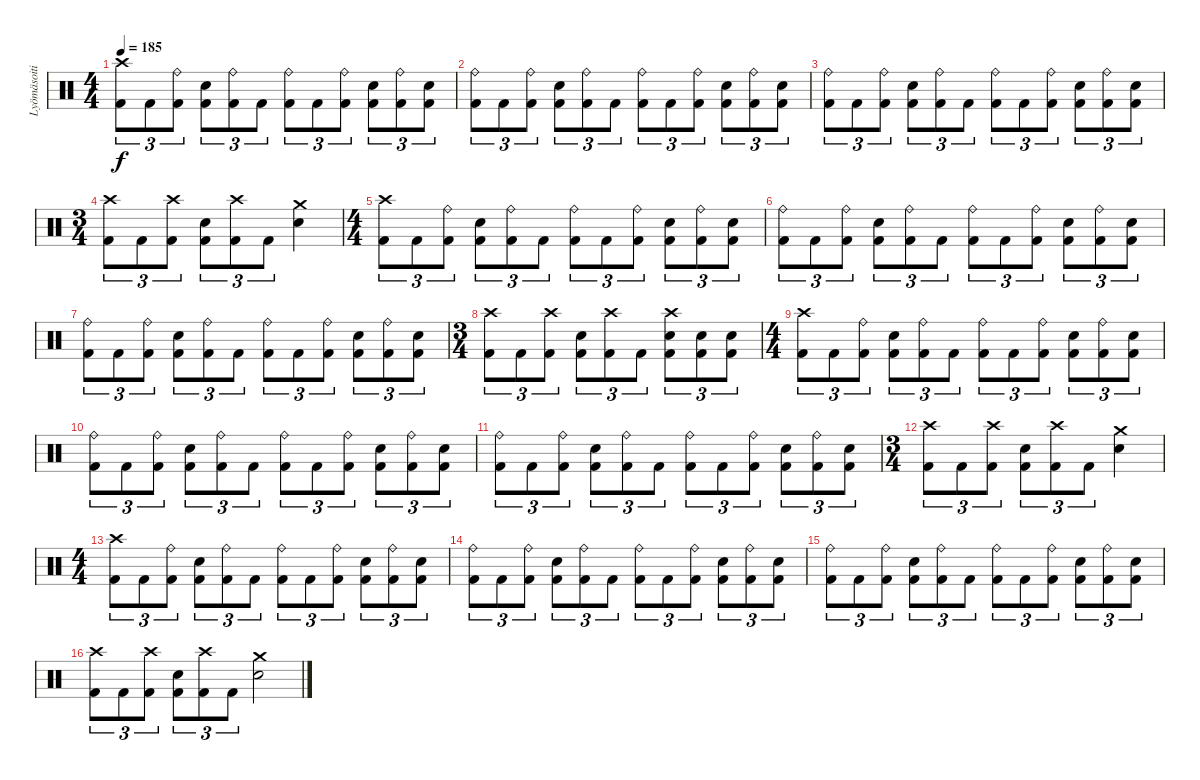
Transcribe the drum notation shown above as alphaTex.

\track ("Lyömäsoitin" "Lyömäsoiti") {instrument percussion}
\staff {score}
\articulation defaults
\ts (4 4)
\tempo 185
\clef neutral
\ks c
("Crash high (hit)" "Kick (hit) 2").8{tu (3 2) dy f} "Kick (hit) 2".8{tu (3 2)} ("Ride (bell)" "Kick (hit) 2").8{tu (3 2)} ("Snare (hit) 2" "Kick (hit) 2").8{tu (3 2)} ("Ride (bell)" "Kick (hit) 2").8{tu (3 2)} "Kick (hit) 2".8{tu (3 2)} ("Ride (bell)" "Kick (hit) 2").8{tu (3 2)} "Kick (hit) 2".8{tu (3 2)} ("Ride (bell)" "Kick (hit) 2").8{tu (3 2)} ("Snare (hit) 2" "Kick (hit) 2").8{tu (3 2)} ("Ride (bell)" "Kick (hit) 2").8{tu (3 2)} ("Snare (hit) 2" "Kick (hit) 2").8{tu (3 2)} |
("Ride (bell)" "Kick (hit) 2").8{tu (3 2)} "Kick (hit) 2".8{tu (3 2)} ("Ride (bell)" "Kick (hit) 2").8{tu (3 2)} ("Snare (hit) 2" "Kick (hit) 2").8{tu (3 2)} ("Ride (bell)" "Kick (hit) 2").8{tu (3 2)} "Kick (hit) 2".8{tu (3 2)} ("Ride (bell)" "Kick (hit) 2").8{tu (3 2)} "Kick (hit) 2".8{tu (3 2)} ("Ride (bell)" "Kick (hit) 2").8{tu (3 2)} ("Snare (hit) 2" "Kick (hit) 2").8{tu (3 2)} ("Ride (bell)" "Kick (hit) 2").8{tu (3 2)} ("Snare (hit) 2" "Kick (hit) 2").8{tu (3 2)} |
("Ride (bell)" "Kick (hit) 2").8{tu (3 2)} "Kick (hit) 2".8{tu (3 2)} ("Ride (bell)" "Kick (hit) 2").8{tu (3 2)} ("Snare (hit) 2" "Kick (hit) 2").8{tu (3 2)} ("Ride (bell)" "Kick (hit) 2").8{tu (3 2)} "Kick (hit) 2".8{tu (3 2)} ("Ride (bell)" "Kick (hit) 2").8{tu (3 2)} "Kick (hit) 2".8{tu (3 2)} ("Ride (bell)" "Kick (hit) 2").8{tu (3 2)} ("Snare (hit) 2" "Kick (hit) 2").8{tu (3 2)} ("Ride (bell)" "Kick (hit) 2").8{tu (3 2)} ("Snare (hit) 2" "Kick (hit) 2").8{tu (3 2)} |
\ts (3 4)
("Crash high (hit)" "Kick (hit) 2").8{tu (3 2)} "Kick (hit) 2".8{tu (3 2)} ("Crash high (hit)" "Kick (hit) 2").8{tu (3 2)} ("Snare (hit) 2" "Kick (hit) 2").8{tu (3 2)} ("Crash high (hit)" "Kick (hit) 2").8{tu (3 2)} "Kick (hit) 2".8{tu (3 2)} ("Crash medium (hit)" "Snare (hit) 2").4 |
\ts (4 4)
("Crash high (hit)" "Kick (hit) 2").8{tu (3 2)} "Kick (hit) 2".8{tu (3 2)} ("Ride (bell)" "Kick (hit) 2").8{tu (3 2)} ("Snare (hit) 2" "Kick (hit) 2").8{tu (3 2)} ("Ride (bell)" "Kick (hit) 2").8{tu (3 2)} "Kick (hit) 2".8{tu (3 2)} ("Ride (bell)" "Kick (hit) 2").8{tu (3 2)} "Kick (hit) 2".8{tu (3 2)} ("Ride (bell)" "Kick (hit) 2").8{tu (3 2)} ("Snare (hit) 2" "Kick (hit) 2").8{tu (3 2)} ("Ride (bell)" "Kick (hit) 2").8{tu (3 2)} ("Snare (hit) 2" "Kick (hit) 2").8{tu (3 2)} |
("Ride (bell)" "Kick (hit) 2").8{tu (3 2)} "Kick (hit) 2".8{tu (3 2)} ("Ride (bell)" "Kick (hit) 2").8{tu (3 2)} ("Snare (hit) 2" "Kick (hit) 2").8{tu (3 2)} ("Ride (bell)" "Kick (hit) 2").8{tu (3 2)} "Kick (hit) 2".8{tu (3 2)} ("Ride (bell)" "Kick (hit) 2").8{tu (3 2)} "Kick (hit) 2".8{tu (3 2)} ("Ride (bell)" "Kick (hit) 2").8{tu (3 2)} ("Snare (hit) 2" "Kick (hit) 2").8{tu (3 2)} ("Ride (bell)" "Kick (hit) 2").8{tu (3 2)} ("Snare (hit) 2" "Kick (hit) 2").8{tu (3 2)} |
("Ride (bell)" "Kick (hit) 2").8{tu (3 2)} "Kick (hit) 2".8{tu (3 2)} ("Ride (bell)" "Kick (hit) 2").8{tu (3 2)} ("Snare (hit) 2" "Kick (hit) 2").8{tu (3 2)} ("Ride (bell)" "Kick (hit) 2").8{tu (3 2)} "Kick (hit) 2".8{tu (3 2)} ("Ride (bell)" "Kick (hit) 2").8{tu (3 2)} "Kick (hit) 2".8{tu (3 2)} ("Ride (bell)" "Kick (hit) 2").8{tu (3 2)} ("Snare (hit) 2" "Kick (hit) 2").8{tu (3 2)} ("Ride (bell)" "Kick (hit) 2").8{tu (3 2)} ("Snare (hit) 2" "Kick (hit) 2").8{tu (3 2)} |
\ts (3 4)
("Crash high (hit)" "Kick (hit) 2").8{tu (3 2)} "Kick (hit) 2".8{tu (3 2)} ("Crash high (hit)" "Kick (hit) 2").8{tu (3 2)} ("Snare (hit) 2" "Kick (hit) 2").8{tu (3 2)} ("Crash high (hit)" "Kick (hit) 2").8{tu (3 2)} "Kick (hit) 2".8{tu (3 2)} ("Crash high (hit)" "Snare (hit) 2" "Kick (hit) 2").8{tu (3 2)} ("Snare (hit) 2" "Kick (hit) 2").8{tu (3 2)} ("Snare (hit) 2" "Kick (hit) 2").8{tu (3 2)} |
\ts (4 4)
("Crash high (hit)" "Kick (hit) 2").8{tu (3 2)} "Kick (hit) 2".8{tu (3 2)} ("Ride (bell)" "Kick (hit) 2").8{tu (3 2)} ("Snare (hit) 2" "Kick (hit) 2").8{tu (3 2)} ("Ride (bell)" "Kick (hit) 2").8{tu (3 2)} "Kick (hit) 2".8{tu (3 2)} ("Ride (bell)" "Kick (hit) 2").8{tu (3 2)} "Kick (hit) 2".8{tu (3 2)} ("Ride (bell)" "Kick (hit) 2").8{tu (3 2)} ("Snare (hit) 2" "Kick (hit) 2").8{tu (3 2)} ("Ride (bell)" "Kick (hit) 2").8{tu (3 2)} ("Snare (hit) 2" "Kick (hit) 2").8{tu (3 2)} |
("Ride (bell)" "Kick (hit) 2").8{tu (3 2)} "Kick (hit) 2".8{tu (3 2)} ("Ride (bell)" "Kick (hit) 2").8{tu (3 2)} ("Snare (hit) 2" "Kick (hit) 2").8{tu (3 2)} ("Ride (bell)" "Kick (hit) 2").8{tu (3 2)} "Kick (hit) 2".8{tu (3 2)} ("Ride (bell)" "Kick (hit) 2").8{tu (3 2)} "Kick (hit) 2".8{tu (3 2)} ("Ride (bell)" "Kick (hit) 2").8{tu (3 2)} ("Snare (hit) 2" "Kick (hit) 2").8{tu (3 2)} ("Ride (bell)" "Kick (hit) 2").8{tu (3 2)} ("Snare (hit) 2" "Kick (hit) 2").8{tu (3 2)} |
("Ride (bell)" "Kick (hit) 2").8{tu (3 2)} "Kick (hit) 2".8{tu (3 2)} ("Ride (bell)" "Kick (hit) 2").8{tu (3 2)} ("Snare (hit) 2" "Kick (hit) 2").8{tu (3 2)} ("Ride (bell)" "Kick (hit) 2").8{tu (3 2)} "Kick (hit) 2".8{tu (3 2)} ("Ride (bell)" "Kick (hit) 2").8{tu (3 2)} "Kick (hit) 2".8{tu (3 2)} ("Ride (bell)" "Kick (hit) 2").8{tu (3 2)} ("Snare (hit) 2" "Kick (hit) 2").8{tu (3 2)} ("Ride (bell)" "Kick (hit) 2").8{tu (3 2)} ("Snare (hit) 2" "Kick (hit) 2").8{tu (3 2)} |
\ts (3 4)
("Crash high (hit)" "Kick (hit) 2").8{tu (3 2)} "Kick (hit) 2".8{tu (3 2)} ("Crash high (hit)" "Kick (hit) 2").8{tu (3 2)} ("Snare (hit) 2" "Kick (hit) 2").8{tu (3 2)} ("Crash high (hit)" "Kick (hit) 2").8{tu (3 2)} "Kick (hit) 2".8{tu (3 2)} ("Crash medium (hit)" "Snare (hit) 2").4 |
\ts (4 4)
("Crash high (hit)" "Kick (hit) 2").8{tu (3 2)} "Kick (hit) 2".8{tu (3 2)} ("Ride (bell)" "Kick (hit) 2").8{tu (3 2)} ("Snare (hit) 2" "Kick (hit) 2").8{tu (3 2)} ("Ride (bell)" "Kick (hit) 2").8{tu (3 2)} "Kick (hit) 2".8{tu (3 2)} ("Ride (bell)" "Kick (hit) 2").8{tu (3 2)} "Kick (hit) 2".8{tu (3 2)} ("Ride (bell)" "Kick (hit) 2").8{tu (3 2)} ("Snare (hit) 2" "Kick (hit) 2").8{tu (3 2)} ("Ride (bell)" "Kick (hit) 2").8{tu (3 2)} ("Snare (hit) 2" "Kick (hit) 2").8{tu (3 2)} |
("Ride (bell)" "Kick (hit) 2").8{tu (3 2)} "Kick (hit) 2".8{tu (3 2)} ("Ride (bell)" "Kick (hit) 2").8{tu (3 2)} ("Snare (hit) 2" "Kick (hit) 2").8{tu (3 2)} ("Ride (bell)" "Kick (hit) 2").8{tu (3 2)} "Kick (hit) 2".8{tu (3 2)} ("Ride (bell)" "Kick (hit) 2").8{tu (3 2)} "Kick (hit) 2".8{tu (3 2)} ("Ride (bell)" "Kick (hit) 2").8{tu (3 2)} ("Snare (hit) 2" "Kick (hit) 2").8{tu (3 2)} ("Ride (bell)" "Kick (hit) 2").8{tu (3 2)} ("Snare (hit) 2" "Kick (hit) 2").8{tu (3 2)} |
("Ride (bell)" "Kick (hit) 2").8{tu (3 2)} "Kick (hit) 2".8{tu (3 2)} ("Ride (bell)" "Kick (hit) 2").8{tu (3 2)} ("Snare (hit) 2" "Kick (hit) 2").8{tu (3 2)} ("Ride (bell)" "Kick (hit) 2").8{tu (3 2)} "Kick (hit) 2".8{tu (3 2)} ("Ride (bell)" "Kick (hit) 2").8{tu (3 2)} "Kick (hit) 2".8{tu (3 2)} ("Ride (bell)" "Kick (hit) 2").8{tu (3 2)} ("Snare (hit) 2" "Kick (hit) 2").8{tu (3 2)} ("Ride (bell)" "Kick (hit) 2").8{tu (3 2)} ("Snare (hit) 2" "Kick (hit) 2").8{tu (3 2)} |
("Crash high (hit)" "Kick (hit) 2").8{tu (3 2)} "Kick (hit) 2".8{tu (3 2)} ("Crash high (hit)" "Kick (hit) 2").8{tu (3 2)} ("Snare (hit) 2" "Kick (hit) 2").8{tu (3 2)} ("Crash high (hit)" "Kick (hit) 2").8{tu (3 2)} "Kick (hit) 2".8{tu (3 2)} ("Crash medium (hit)" "Snare (hit) 2").2
